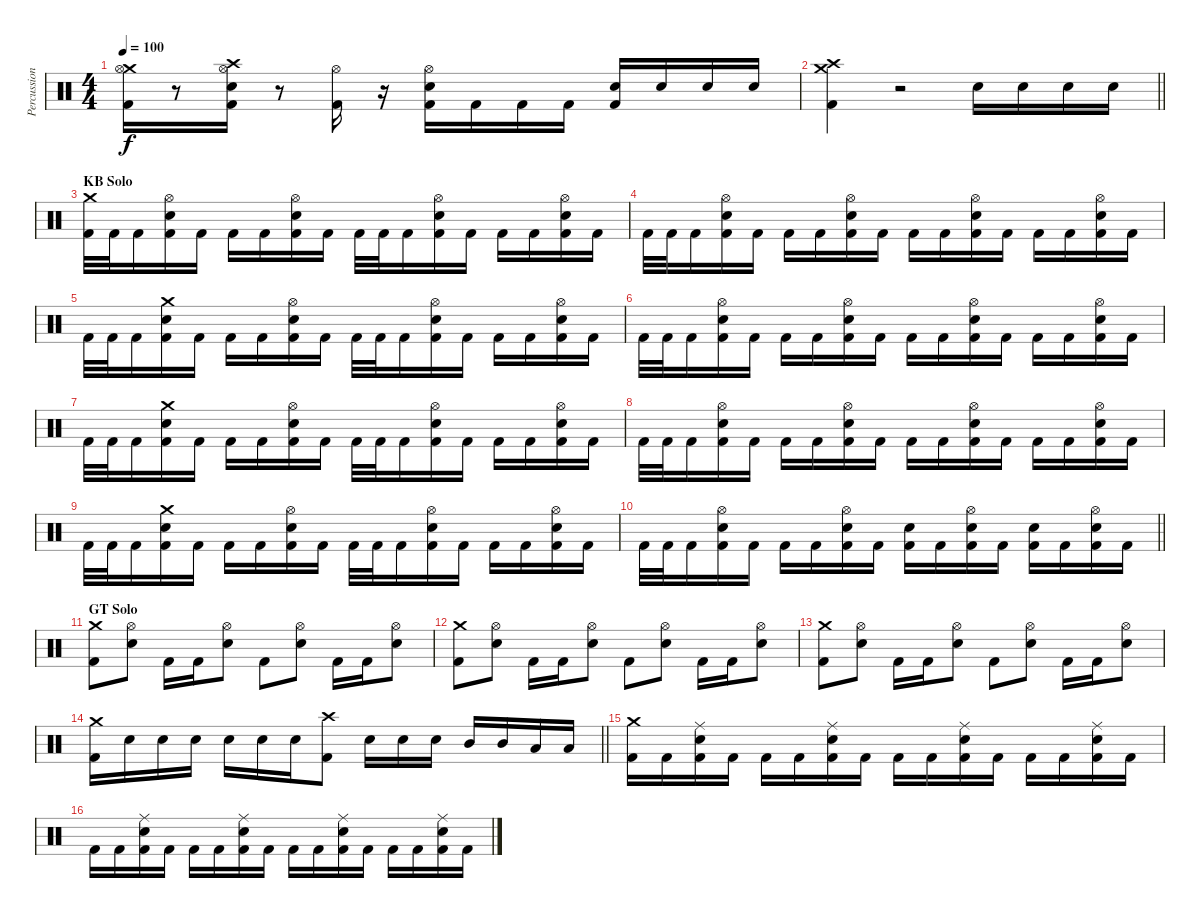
\track ("Percussion" "Percussion") {instrument percussion}
\staff {score}
\articulation defaults
\ts (4 4)
\tempo 100
\clef neutral
\ks c
("Crash medium (hit)" "Hi-Hat (open)" "Kick (hit) 2").16{dy f} r.8 ("Crash high (hit)" "Hi-Hat (open)" "Electric Snare (hit)" "Kick (hit) 2").16 r.8 ("Hi-Hat (open)" "Kick (hit) 2").16 r.16 ("Hi-Hat (open)" "Electric Snare (hit)" "Kick (hit) 2").16 "Kick (hit) 2".16 "Kick (hit) 2".16 "Kick (hit) 2".16 ("Electric Snare (hit)" "Kick (hit) 2").16 "Electric Snare (hit)".16 "Electric Snare (hit)".16 "Electric Snare (hit)".16 |
\barLineRight lightlight
("Crash medium (hit)" "Crash high (hit)" "Kick (hit) 2").4 r.2 "Electric Snare (hit)".16 "Electric Snare (hit)".16 "Electric Snare (hit)".16 "Electric Snare (hit)".16 |
\section ("" "KB Solo")
("Crash medium (hit)" "Kick (hit) 2").32 "Kick (hit) 2".32 "Kick (hit) 2".16 ("Hi-Hat (open)" "Electric Snare (hit)" "Kick (hit) 2").16 "Kick (hit) 2".16 "Kick (hit) 2".16 "Kick (hit) 2".16 ("Hi-Hat (open)" "Electric Snare (hit)" "Kick (hit) 2").16 "Kick (hit) 2".16 "Kick (hit) 2".32 "Kick (hit) 2".32 "Kick (hit) 2".16 ("Hi-Hat (open)" "Electric Snare (hit)" "Kick (hit) 2").16 "Kick (hit) 2".16 "Kick (hit) 2".16 "Kick (hit) 2".16 ("Hi-Hat (open)" "Electric Snare (hit)" "Kick (hit) 2").16 "Kick (hit) 2".16 |
"Kick (hit) 2".32 "Kick (hit) 2".32 "Kick (hit) 2".16 ("Hi-Hat (open)" "Electric Snare (hit)" "Kick (hit) 2").16 "Kick (hit) 2".16 "Kick (hit) 2".16 "Kick (hit) 2".16 ("Hi-Hat (open)" "Electric Snare (hit)" "Kick (hit) 2").16 "Kick (hit) 2".16 "Kick (hit) 2".16 "Kick (hit) 2".16 ("Hi-Hat (open)" "Electric Snare (hit)" "Kick (hit) 2").16 "Kick (hit) 2".16 "Kick (hit) 2".16 "Kick (hit) 2".16 ("Hi-Hat (open)" "Electric Snare (hit)" "Kick (hit) 2").16 "Kick (hit) 2".16 |
"Kick (hit) 2".32 "Kick (hit) 2".32 "Kick (hit) 2".16 ("Crash medium (hit)" "Electric Snare (hit)" "Kick (hit) 2").16 "Kick (hit) 2".16 "Kick (hit) 2".16 "Kick (hit) 2".16 ("Hi-Hat (open)" "Electric Snare (hit)" "Kick (hit) 2").16 "Kick (hit) 2".16 "Kick (hit) 2".32 "Kick (hit) 2".32 "Kick (hit) 2".16 ("Hi-Hat (open)" "Electric Snare (hit)" "Kick (hit) 2").16 "Kick (hit) 2".16 "Kick (hit) 2".16 "Kick (hit) 2".16 ("Hi-Hat (open)" "Electric Snare (hit)" "Kick (hit) 2").16 "Kick (hit) 2".16 |
"Kick (hit) 2".32 "Kick (hit) 2".32 "Kick (hit) 2".16 ("Hi-Hat (open)" "Electric Snare (hit)" "Kick (hit) 2").16 "Kick (hit) 2".16 "Kick (hit) 2".16 "Kick (hit) 2".16 ("Hi-Hat (open)" "Electric Snare (hit)" "Kick (hit) 2").16 "Kick (hit) 2".16 "Kick (hit) 2".16 "Kick (hit) 2".16 ("Hi-Hat (open)" "Electric Snare (hit)" "Kick (hit) 2").16 "Kick (hit) 2".16 "Kick (hit) 2".16 "Kick (hit) 2".16 ("Hi-Hat (open)" "Electric Snare (hit)" "Kick (hit) 2").16 "Kick (hit) 2".16 |
"Kick (hit) 2".32 "Kick (hit) 2".32 "Kick (hit) 2".16 ("Crash medium (hit)" "Electric Snare (hit)" "Kick (hit) 2").16 "Kick (hit) 2".16 "Kick (hit) 2".16 "Kick (hit) 2".16 ("Hi-Hat (open)" "Electric Snare (hit)" "Kick (hit) 2").16 "Kick (hit) 2".16 "Kick (hit) 2".32 "Kick (hit) 2".32 "Kick (hit) 2".16 ("Hi-Hat (open)" "Electric Snare (hit)" "Kick (hit) 2").16 "Kick (hit) 2".16 "Kick (hit) 2".16 "Kick (hit) 2".16 ("Hi-Hat (open)" "Electric Snare (hit)" "Kick (hit) 2").16 "Kick (hit) 2".16 |
"Kick (hit) 2".32 "Kick (hit) 2".32 "Kick (hit) 2".16 ("Hi-Hat (open)" "Electric Snare (hit)" "Kick (hit) 2").16 "Kick (hit) 2".16 "Kick (hit) 2".16 "Kick (hit) 2".16 ("Hi-Hat (open)" "Electric Snare (hit)" "Kick (hit) 2").16 "Kick (hit) 2".16 "Kick (hit) 2".16 "Kick (hit) 2".16 ("Hi-Hat (open)" "Electric Snare (hit)" "Kick (hit) 2").16 "Kick (hit) 2".16 "Kick (hit) 2".16 "Kick (hit) 2".16 ("Hi-Hat (open)" "Electric Snare (hit)" "Kick (hit) 2").16 "Kick (hit) 2".16 |
"Kick (hit) 2".32 "Kick (hit) 2".32 "Kick (hit) 2".16 ("Crash medium (hit)" "Electric Snare (hit)" "Kick (hit) 2").16 "Kick (hit) 2".16 "Kick (hit) 2".16 "Kick (hit) 2".16 ("Hi-Hat (open)" "Electric Snare (hit)" "Kick (hit) 2").16 "Kick (hit) 2".16 "Kick (hit) 2".32 "Kick (hit) 2".32 "Kick (hit) 2".16 ("Hi-Hat (open)" "Electric Snare (hit)" "Kick (hit) 2").16 "Kick (hit) 2".16 "Kick (hit) 2".16 "Kick (hit) 2".16 ("Hi-Hat (open)" "Electric Snare (hit)" "Kick (hit) 2").16 "Kick (hit) 2".16 |
\barLineRight lightlight "Kick (hit) 2".32 "Kick (hit) 2".32 "Kick (hit) 2".16
("Hi-Hat (open)" "Electric Snare (hit)" "Kick (hit) 2").16 "Kick (hit) 2".16 "Kick (hit) 2".16 "Kick (hit) 2".16 ("Hi-Hat (open)" "Electric Snare (hit)" "Kick (hit) 2").16 "Kick (hit) 2".16 ("Electric Snare (hit)" "Kick (hit) 2").16 "Kick (hit) 2".16 ("Hi-Hat (open)" "Electric Snare (hit)" "Kick (hit) 2").16 "Kick (hit) 2".16 ("Electric Snare (hit)" "Kick (hit) 2").16 "Kick (hit) 2".16 ("Hi-Hat (open)" "Electric Snare (hit)" "Kick (hit) 2").16 "Kick (hit) 2".16 |
\section ("" "GT Solo")
("Crash medium (hit)" "Kick (hit) 2").8 ("Hi-Hat (open)" "Electric Snare (hit)").8 "Kick (hit) 2".16 "Kick (hit) 2".16 ("Hi-Hat (open)" "Electric Snare (hit)").8 "Kick (hit) 2".8 ("Hi-Hat (open)" "Electric Snare (hit)").8 "Kick (hit) 2".16 "Kick (hit) 2".16 ("Hi-Hat (open)" "Electric Snare (hit)").8 |
("Crash medium (hit)" "Kick (hit) 2").8 ("Hi-Hat (open)" "Electric Snare (hit)").8 "Kick (hit) 2".16 "Kick (hit) 2".16 ("Hi-Hat (open)" "Electric Snare (hit)").8 "Kick (hit) 2".8 ("Hi-Hat (open)" "Electric Snare (hit)").8 "Kick (hit) 2".16 "Kick (hit) 2".16 ("Hi-Hat (open)" "Electric Snare (hit)").8 |
("Crash medium (hit)" "Kick (hit) 2").8 ("Hi-Hat (open)" "Electric Snare (hit)").8 "Kick (hit) 2".16 "Kick (hit) 2".16 ("Hi-Hat (open)" "Electric Snare (hit)").8 "Kick (hit) 2".8 ("Hi-Hat (open)" "Electric Snare (hit)").8 "Kick (hit) 2".16 "Kick (hit) 2".16 ("Hi-Hat (open)" "Electric Snare (hit)").8 |
\barLineRight lightlight
("Crash medium (hit)" "Kick (hit) 2").16 "Electric Snare (hit)".16 "Electric Snare (hit)".16 "Electric Snare (hit)".16 "Electric Snare (hit)".16 "Electric Snare (hit)".16 "Electric Snare (hit)".16 ("Crash high (hit)" "Kick (hit) 2").8 "Electric Snare (hit)".16 "Electric Snare (hit)".16 "Electric Snare (hit)".16 "Mid Tom (hit)".16 "Mid Tom (hit)".16 "Low Tom (hit)".16 "Low Tom (hit)".16 |
\section ("" "")
("Crash medium (hit)" "Kick (hit) 2").16 "Kick (hit) 2".16 ("Ride (middle)" "Electric Snare (hit)" "Kick (hit) 2").16 "Kick (hit) 2".16 "Kick (hit) 2".16 "Kick (hit) 2".16 ("Ride (middle)" "Electric Snare (hit)" "Kick (hit) 2").16 "Kick (hit) 2".16 "Kick (hit) 2".16 "Kick (hit) 2".16 ("Ride (middle)" "Electric Snare (hit)" "Kick (hit) 2").16 "Kick (hit) 2".16 "Kick (hit) 2".16 "Kick (hit) 2".16 ("Ride (middle)" "Electric Snare (hit)" "Kick (hit) 2").16 "Kick (hit) 2".16 |
"Kick (hit) 2".16 "Kick (hit) 2".16 ("Ride (middle)" "Electric Snare (hit)" "Kick (hit) 2").16 "Kick (hit) 2".16 "Kick (hit) 2".16 "Kick (hit) 2".16 ("Ride (middle)" "Electric Snare (hit)" "Kick (hit) 2").16 "Kick (hit) 2".16 "Kick (hit) 2".16 "Kick (hit) 2".16 ("Ride (middle)" "Electric Snare (hit)" "Kick (hit) 2").16 "Kick (hit) 2".16 "Kick (hit) 2".16 "Kick (hit) 2".16 ("Ride (middle)" "Electric Snare (hit)" "Kick (hit) 2").16 "Kick (hit) 2".16
